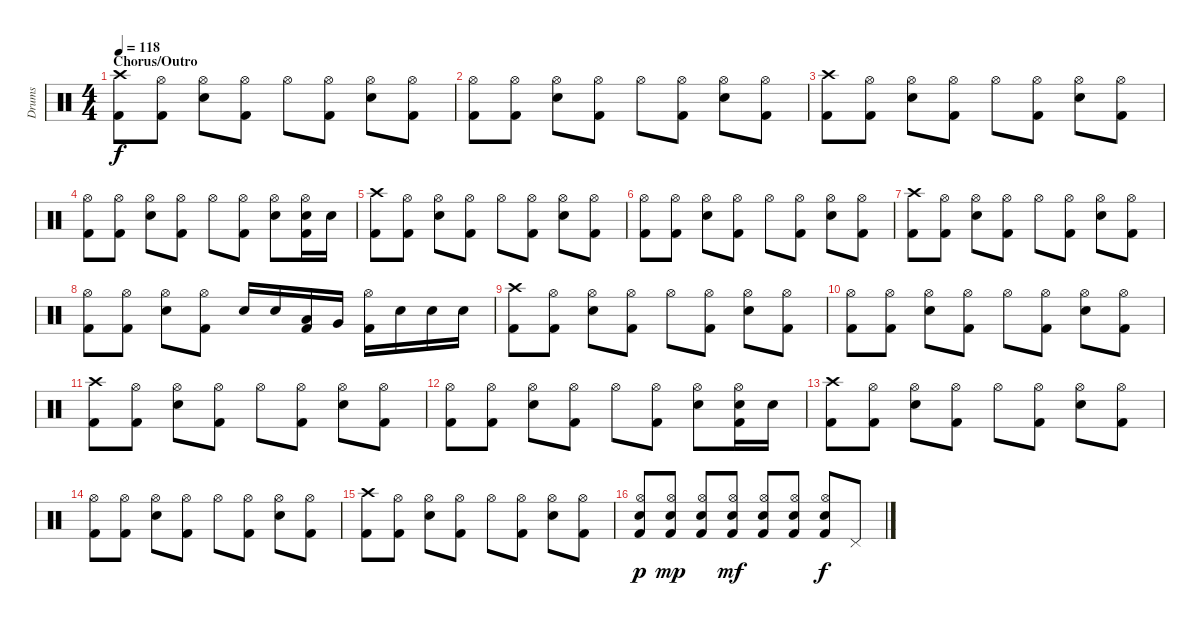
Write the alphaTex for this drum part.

\track ("Drums" "Drums") {instrument percussion}
\staff {score}
\articulation defaults
\ts (4 4)
\section ("" "Chorus/Outro")
\tempo 118
\clef neutral
\ks c
("Crash high (hit)" "Kick (hit) 2").8{dy f} ("Hi-Hat (open)" "Kick (hit) 2").8 ("Hi-Hat (open)" "Electric Snare (hit)").8 ("Hi-Hat (open)" "Kick (hit) 2").8 "Hi-Hat (open)".8 ("Hi-Hat (open)" "Kick (hit) 2").8 ("Hi-Hat (open)" "Electric Snare (hit)").8 ("Hi-Hat (open)" "Kick (hit) 2").8 |
("Hi-Hat (open)" "Kick (hit) 2").8 ("Hi-Hat (open)" "Kick (hit) 2").8 ("Hi-Hat (open)" "Electric Snare (hit)").8 ("Hi-Hat (open)" "Kick (hit) 2").8 "Hi-Hat (open)".8 ("Hi-Hat (open)" "Kick (hit) 2").8 ("Hi-Hat (open)" "Electric Snare (hit)").8 ("Hi-Hat (open)" "Kick (hit) 2").8 |
("Crash high (hit)" "Kick (hit) 2").8 ("Hi-Hat (open)" "Kick (hit) 2").8 ("Hi-Hat (open)" "Electric Snare (hit)").8 ("Hi-Hat (open)" "Kick (hit) 2").8 "Hi-Hat (open)".8 ("Hi-Hat (open)" "Kick (hit) 2").8 ("Hi-Hat (open)" "Electric Snare (hit)").8 ("Hi-Hat (open)" "Kick (hit) 2").8 |
("Hi-Hat (open)" "Kick (hit) 2").8 ("Hi-Hat (open)" "Kick (hit) 2").8 ("Hi-Hat (open)" "Electric Snare (hit)").8 ("Hi-Hat (open)" "Kick (hit) 2").8 "Hi-Hat (open)".8 ("Hi-Hat (open)" "Kick (hit) 2").8 ("Hi-Hat (open)" "Electric Snare (hit)").8 ("Hi-Hat (open)" "Electric Snare (hit)" "Kick (hit) 2").16 "Electric Snare (hit)".16 |
("Crash high (hit)" "Kick (hit) 2").8 ("Hi-Hat (open)" "Kick (hit) 2").8 ("Hi-Hat (open)" "Electric Snare (hit)").8 ("Hi-Hat (open)" "Kick (hit) 2").8 "Hi-Hat (open)".8 ("Hi-Hat (open)" "Kick (hit) 2").8 ("Hi-Hat (open)" "Electric Snare (hit)").8 ("Hi-Hat (open)" "Kick (hit) 2").8 |
("Hi-Hat (open)" "Kick (hit) 2").8 ("Hi-Hat (open)" "Kick (hit) 2").8 ("Hi-Hat (open)" "Electric Snare (hit)").8 ("Hi-Hat (open)" "Kick (hit) 2").8 "Hi-Hat (open)".8 ("Hi-Hat (open)" "Kick (hit) 2").8 ("Hi-Hat (open)" "Electric Snare (hit)").8 ("Hi-Hat (open)" "Kick (hit) 2").8 |
("Crash high (hit)" "Kick (hit) 2").8 ("Hi-Hat (open)" "Kick (hit) 2").8 ("Hi-Hat (open)" "Electric Snare (hit)").8 ("Hi-Hat (open)" "Kick (hit) 2").8 "Hi-Hat (open)".8 ("Hi-Hat (open)" "Kick (hit) 2").8 ("Hi-Hat (open)" "Electric Snare (hit)").8 ("Hi-Hat (open)" "Kick (hit) 2").8 |
("Hi-Hat (open)" "Kick (hit) 2").8 ("Hi-Hat (open)" "Kick (hit) 2").8 ("Hi-Hat (open)" "Electric Snare (hit)").8 ("Hi-Hat (open)" "Kick (hit) 2").8 "Electric Snare (hit)".16 "Electric Snare (hit)".16 ("Low Tom (hit)" "Kick (hit) 2").16 "Very Low Tom (hit)".16 ("Hi-Hat (open)" "Kick (hit) 2").16 "Electric Snare (hit)".16 "Electric Snare (hit)".16 "Electric Snare (hit)".16 |
("Crash high (hit)" "Kick (hit) 2").8 ("Hi-Hat (open)" "Kick (hit) 2").8 ("Hi-Hat (open)" "Electric Snare (hit)").8 ("Hi-Hat (open)" "Kick (hit) 2").8 "Hi-Hat (open)".8 ("Hi-Hat (open)" "Kick (hit) 2").8 ("Hi-Hat (open)" "Electric Snare (hit)").8 ("Hi-Hat (open)" "Kick (hit) 2").8 |
("Hi-Hat (open)" "Kick (hit) 2").8 ("Hi-Hat (open)" "Kick (hit) 2").8 ("Hi-Hat (open)" "Electric Snare (hit)").8 ("Hi-Hat (open)" "Kick (hit) 2").8 "Hi-Hat (open)".8 ("Hi-Hat (open)" "Kick (hit) 2").8 ("Hi-Hat (open)" "Electric Snare (hit)").8 ("Hi-Hat (open)" "Kick (hit) 2").8 |
("Crash high (hit)" "Kick (hit) 2").8 ("Hi-Hat (open)" "Kick (hit) 2").8 ("Hi-Hat (open)" "Electric Snare (hit)").8 ("Hi-Hat (open)" "Kick (hit) 2").8 "Hi-Hat (open)".8 ("Hi-Hat (open)" "Kick (hit) 2").8 ("Hi-Hat (open)" "Electric Snare (hit)").8 ("Hi-Hat (open)" "Kick (hit) 2").8 |
("Hi-Hat (open)" "Kick (hit) 2").8 ("Hi-Hat (open)" "Kick (hit) 2").8 ("Hi-Hat (open)" "Electric Snare (hit)").8 ("Hi-Hat (open)" "Kick (hit) 2").8 "Hi-Hat (open)".8 ("Hi-Hat (open)" "Kick (hit) 2").8 ("Hi-Hat (open)" "Electric Snare (hit)").8 ("Hi-Hat (open)" "Electric Snare (hit)" "Kick (hit) 2").16 "Electric Snare (hit)".16 |
("Crash high (hit)" "Kick (hit) 2").8 ("Hi-Hat (open)" "Kick (hit) 2").8 ("Hi-Hat (open)" "Electric Snare (hit)").8 ("Hi-Hat (open)" "Kick (hit) 2").8 "Hi-Hat (open)".8 ("Hi-Hat (open)" "Kick (hit) 2").8 ("Hi-Hat (open)" "Electric Snare (hit)").8 ("Hi-Hat (open)" "Kick (hit) 2").8 |
("Hi-Hat (open)" "Kick (hit) 2").8 ("Hi-Hat (open)" "Kick (hit) 2").8 ("Hi-Hat (open)" "Electric Snare (hit)").8 ("Hi-Hat (open)" "Kick (hit) 2").8 "Hi-Hat (open)".8 ("Hi-Hat (open)" "Kick (hit) 2").8 ("Hi-Hat (open)" "Electric Snare (hit)").8 ("Hi-Hat (open)" "Kick (hit) 2").8 |
("Crash high (hit)" "Kick (hit) 2").8 ("Hi-Hat (open)" "Kick (hit) 2").8 ("Hi-Hat (open)" "Electric Snare (hit)").8 ("Hi-Hat (open)" "Kick (hit) 2").8 "Hi-Hat (open)".8 ("Hi-Hat (open)" "Kick (hit) 2").8 ("Hi-Hat (open)" "Electric Snare (hit)").8 ("Hi-Hat (open)" "Kick (hit) 2").8 |
("Hi-Hat (open)" "Snare (hit) 2" "Kick (hit) 2").8{dy p} ("Hi-Hat (open)" "Snare (hit) 2" "Kick (hit) 2").8{dy mp} ("Hi-Hat (open)" "Snare (hit) 2" "Kick (hit) 2").8 ("Hi-Hat (open)" "Snare (hit) 2" "Kick (hit) 2").8{dy mf} ("Hi-Hat (open)" "Snare (hit) 2" "Kick (hit) 2").8 ("Hi-Hat (open)" "Snare (hit) 2" "Kick (hit) 2").8 ("Hi-Hat (open)" "Snare (hit) 2" "Kick (hit) 2").8{dy f} "Pedal Hi-Hat (hit)".8
